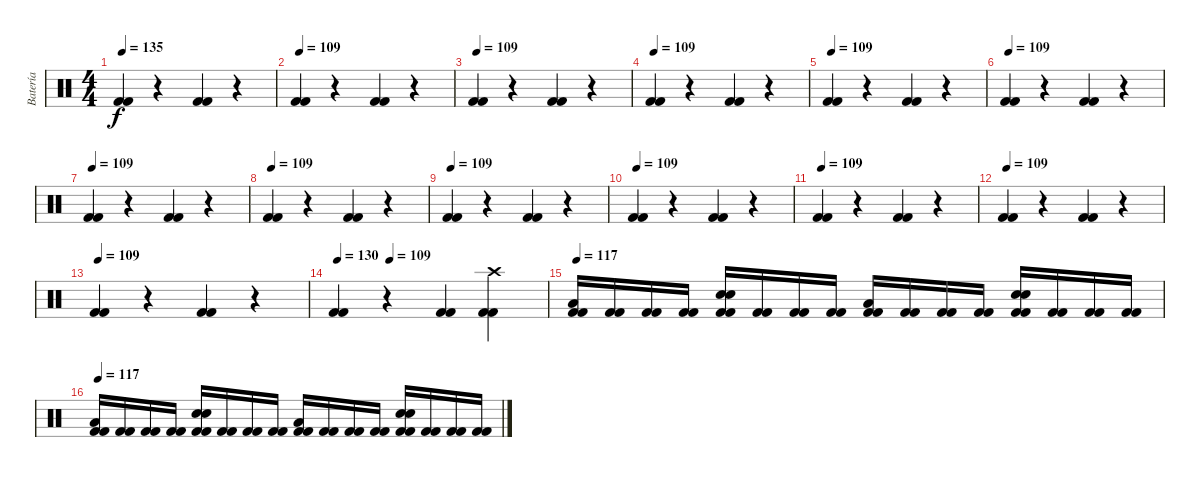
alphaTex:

\track ("Batería   (Jony)" "Batería   ") {instrument percussion}
\staff {score}
\articulation defaults
\ts (4 4)
\tempo 135
\tempo 109
\tempo 135
\clef neutral
\ks c
("Kick (hit) 2" "Kick (hit) 2").4{dy f} r.4 ("Kick (hit) 2" "Kick (hit) 2").4 r.4 |
\tempo 109
("Kick (hit) 2" "Kick (hit) 2").4 r.4 ("Kick (hit) 2" "Kick (hit) 2").4 r.4 |
\tempo 109
("Kick (hit) 2" "Kick (hit) 2").4 r.4 ("Kick (hit) 2" "Kick (hit) 2").4 r.4 |
\tempo 109
("Kick (hit) 2" "Kick (hit) 2").4 r.4 ("Kick (hit) 2" "Kick (hit) 2").4 r.4 |
\tempo 109
("Kick (hit) 2" "Kick (hit) 2").4 r.4 ("Kick (hit) 2" "Kick (hit) 2").4 r.4 |
\tempo 109
("Kick (hit) 2" "Kick (hit) 2").4 r.4 ("Kick (hit) 2" "Kick (hit) 2").4 r.4 |
\tempo 109
("Kick (hit) 2" "Kick (hit) 2").4 r.4 ("Kick (hit) 2" "Kick (hit) 2").4 r.4 |
\tempo 109
("Kick (hit) 2" "Kick (hit) 2").4 r.4 ("Kick (hit) 2" "Kick (hit) 2").4 r.4 |
\tempo 109
("Kick (hit) 2" "Kick (hit) 2").4 r.4 ("Kick (hit) 2" "Kick (hit) 2").4 r.4 |
\tempo 109
("Kick (hit) 2" "Kick (hit) 2").4 r.4 ("Kick (hit) 2" "Kick (hit) 2").4 r.4 |
\tempo 109
("Kick (hit) 2" "Kick (hit) 2").4 r.4 ("Kick (hit) 2" "Kick (hit) 2").4 r.4 |
\tempo 109
("Kick (hit) 2" "Kick (hit) 2").4 r.4 ("Kick (hit) 2" "Kick (hit) 2").4 r.4 |
\tempo 109
("Kick (hit) 2" "Kick (hit) 2").4 r.4 ("Kick (hit) 2" "Kick (hit) 2").4 r.4 |
\tempo 130
\tempo (109 0.25)
("Kick (hit) 2" "Kick (hit) 2").4 r.4 ("Kick (hit) 2" "Kick (hit) 2").4 ("Crash high (hit)" "Kick (hit) 2" "Kick (hit) 2").4 |
\tempo 130
\tempo 117
("Low Floor Tom (hit)" "Kick (hit) 2" "Kick (hit) 2").16 ("Kick (hit) 2" "Kick (hit) 2").16 ("Kick (hit) 2" "Kick (hit) 2").16 ("Kick (hit) 2" "Kick (hit) 2").16 ("Electric Snare (hit)" "Snare (hit) 2" "Kick (hit) 2" "Kick (hit) 2").16 ("Kick (hit) 2" "Kick (hit) 2").16 ("Kick (hit) 2" "Kick (hit) 2").16 ("Kick (hit) 2" "Kick (hit) 2").16 ("Low Floor Tom (hit)" "Kick (hit) 2" "Kick (hit) 2").16 ("Kick (hit) 2" "Kick (hit) 2").16 ("Kick (hit) 2" "Kick (hit) 2").16 ("Kick (hit) 2" "Kick (hit) 2").16 ("Electric Snare (hit)" "Snare (hit) 2" "Kick (hit) 2" "Kick (hit) 2").16 ("Kick (hit) 2" "Kick (hit) 2").16 ("Kick (hit) 2" "Kick (hit) 2").16 ("Kick (hit) 2" "Kick (hit) 2").16 |
\tempo 117
("Low Floor Tom (hit)" "Kick (hit) 2" "Kick (hit) 2").16 ("Kick (hit) 2" "Kick (hit) 2").16 ("Kick (hit) 2" "Kick (hit) 2").16 ("Kick (hit) 2" "Kick (hit) 2").16 ("Electric Snare (hit)" "Snare (hit) 2" "Kick (hit) 2" "Kick (hit) 2").16 ("Kick (hit) 2" "Kick (hit) 2").16 ("Kick (hit) 2" "Kick (hit) 2").16 ("Kick (hit) 2" "Kick (hit) 2").16 ("Low Floor Tom (hit)" "Kick (hit) 2" "Kick (hit) 2").16 ("Kick (hit) 2" "Kick (hit) 2").16 ("Kick (hit) 2" "Kick (hit) 2").16 ("Kick (hit) 2" "Kick (hit) 2").16 ("Electric Snare (hit)" "Snare (hit) 2" "Kick (hit) 2" "Kick (hit) 2").16 ("Kick (hit) 2" "Kick (hit) 2").16 ("Kick (hit) 2" "Kick (hit) 2").16 ("Kick (hit) 2" "Kick (hit) 2").16
